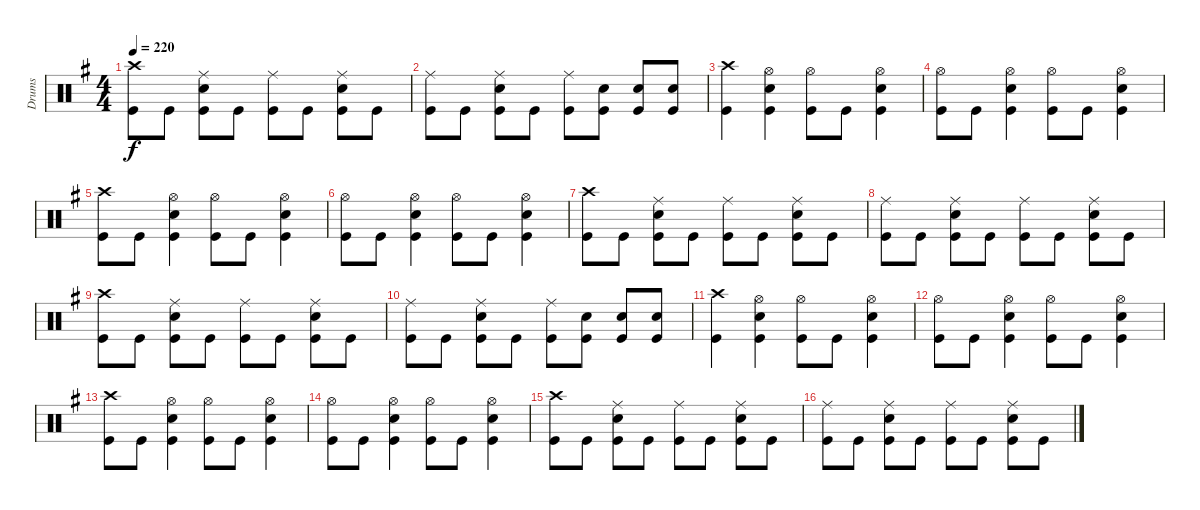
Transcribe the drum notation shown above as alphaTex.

\track ("Drums" "Drums") {instrument percussion}
\staff {score}
\articulation defaults
\ts (4 4)
\tempo 220
\clef neutral
\ks eminor
("Kick (hit)" "Crash high (hit)").8{dy f} "Kick (hit)".8 ("Snare (hit) 2" "Kick (hit)" "Ride (middle)").8 "Kick (hit)".8 ("Kick (hit)" "Ride (middle)").8 "Kick (hit)".8 ("Kick (hit)" "Snare (hit) 2" "Ride (middle)").8 "Kick (hit)".8 |
("Kick (hit)" "Ride (middle)").8 "Kick (hit)".8 ("Kick (hit)" "Snare (hit) 2" "Ride (middle)").8 "Kick (hit)".8 ("Kick (hit)" "Ride (middle)").8 ("Kick (hit)" "Snare (hit) 2").8 ("Kick (hit)" "Snare (hit) 2").8 ("Kick (hit)" "Snare (hit) 2").8 |
("Kick (hit)" "Crash high (hit)").4 ("Snare (hit) 2" "Kick (hit)" "Hi-Hat (open)").4 ("Kick (hit)" "Hi-Hat (open)").8 "Kick (hit)".8 ("Kick (hit)" "Snare (hit) 2" "Hi-Hat (open)").4 |
("Kick (hit)" "Hi-Hat (open)").8 "Kick (hit)".8 ("Kick (hit)" "Snare (hit) 2" "Hi-Hat (open)").4 ("Kick (hit)" "Hi-Hat (open)").8 "Kick (hit)".8 ("Kick (hit)" "Snare (hit) 2" "Hi-Hat (open)").4 |
("Kick (hit)" "Crash high (hit)").8 "Kick (hit)".8 ("Snare (hit) 2" "Kick (hit)" "Hi-Hat (open)").4 ("Kick (hit)" "Hi-Hat (open)").8 "Kick (hit)".8 ("Kick (hit)" "Snare (hit) 2" "Hi-Hat (open)").4 |
("Kick (hit)" "Hi-Hat (open)").8 "Kick (hit)".8 ("Kick (hit)" "Snare (hit) 2" "Hi-Hat (open)").4 ("Kick (hit)" "Hi-Hat (open)").8 "Kick (hit)".8 ("Kick (hit)" "Snare (hit) 2" "Hi-Hat (open)").4 |
("Kick (hit)" "Crash high (hit)").8 "Kick (hit)".8 ("Snare (hit) 2" "Kick (hit)" "Ride (middle)").8 "Kick (hit)".8 ("Kick (hit)" "Ride (middle)").8 "Kick (hit)".8 ("Kick (hit)" "Snare (hit) 2" "Ride (middle)").8 "Kick (hit)".8 |
("Kick (hit)" "Ride (middle)").8 "Kick (hit)".8 ("Kick (hit)" "Snare (hit) 2" "Ride (middle)").8 "Kick (hit)".8 ("Kick (hit)" "Ride (middle)").8 "Kick (hit)".8 ("Kick (hit)" "Snare (hit) 2" "Ride (middle)").8 "Kick (hit)".8 |
("Kick (hit)" "Crash high (hit)").8 "Kick (hit)".8 ("Snare (hit) 2" "Kick (hit)" "Ride (middle)").8 "Kick (hit)".8 ("Kick (hit)" "Ride (middle)").8 "Kick (hit)".8 ("Kick (hit)" "Snare (hit) 2" "Ride (middle)").8 "Kick (hit)".8 |
("Kick (hit)" "Ride (middle)").8 "Kick (hit)".8 ("Kick (hit)" "Snare (hit) 2" "Ride (middle)").8 "Kick (hit)".8 ("Kick (hit)" "Ride (middle)").8 ("Kick (hit)" "Snare (hit) 2").8 ("Kick (hit)" "Snare (hit) 2").8 ("Kick (hit)" "Snare (hit) 2").8 |
("Kick (hit)" "Crash high (hit)").4 ("Snare (hit) 2" "Kick (hit)" "Hi-Hat (open)").4 ("Kick (hit)" "Hi-Hat (open)").8 "Kick (hit)".8 ("Kick (hit)" "Snare (hit) 2" "Hi-Hat (open)").4 |
("Kick (hit)" "Hi-Hat (open)").8 "Kick (hit)".8 ("Kick (hit)" "Snare (hit) 2" "Hi-Hat (open)").4 ("Kick (hit)" "Hi-Hat (open)").8 "Kick (hit)".8 ("Kick (hit)" "Snare (hit) 2" "Hi-Hat (open)").4 |
("Kick (hit)" "Crash high (hit)").8 "Kick (hit)".8 ("Snare (hit) 2" "Kick (hit)" "Hi-Hat (open)").4 ("Kick (hit)" "Hi-Hat (open)").8 "Kick (hit)".8 ("Kick (hit)" "Snare (hit) 2" "Hi-Hat (open)").4 |
("Kick (hit)" "Hi-Hat (open)").8 "Kick (hit)".8 ("Kick (hit)" "Snare (hit) 2" "Hi-Hat (open)").4 ("Kick (hit)" "Hi-Hat (open)").8 "Kick (hit)".8 ("Kick (hit)" "Snare (hit) 2" "Hi-Hat (open)").4 |
("Kick (hit)" "Crash high (hit)").8 "Kick (hit)".8 ("Snare (hit) 2" "Kick (hit)" "Ride (middle)").8 "Kick (hit)".8 ("Kick (hit)" "Ride (middle)").8 "Kick (hit)".8 ("Kick (hit)" "Snare (hit) 2" "Ride (middle)").8 "Kick (hit)".8 |
("Kick (hit)" "Ride (middle)").8 "Kick (hit)".8 ("Kick (hit)" "Snare (hit) 2" "Ride (middle)").8 "Kick (hit)".8 ("Kick (hit)" "Ride (middle)").8 "Kick (hit)".8 ("Kick (hit)" "Snare (hit) 2" "Ride (middle)").8 "Kick (hit)".8
